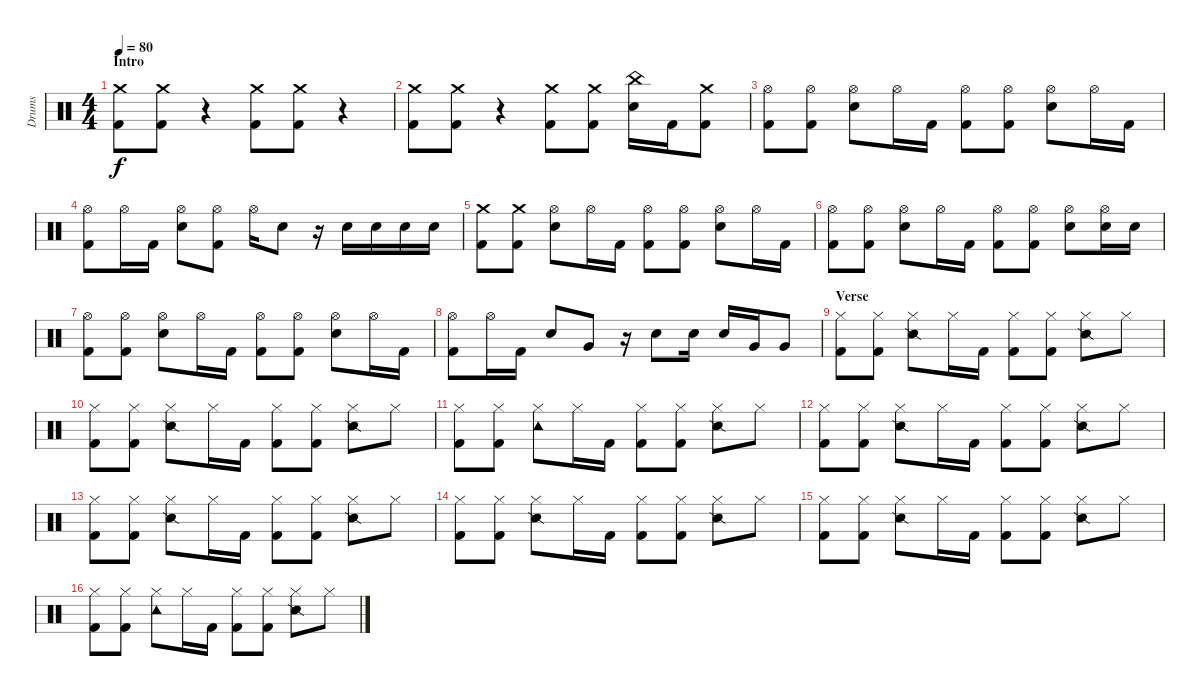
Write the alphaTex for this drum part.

\track ("Drums" "Drums") {instrument percussion}
\staff {score}
\articulation defaults
\ts (4 4)
\section ("" "Intro")
\tempo 80
\clef neutral
\ks c
("Crash medium (hit)" "Kick (hit) 2").8{dy f} ("Crash medium (hit)" "Kick (hit) 2").8 r.4 ("Crash medium (hit)" "Kick (hit) 2").8 ("Crash medium (hit)" "Kick (hit) 2").8 r.4 |
("Crash medium (hit)" "Kick (hit) 2").8 ("Crash medium (hit)" "Kick (hit) 2").8 r.4 ("Crash medium (hit)" "Kick (hit) 2").8 ("Crash medium (hit)" "Kick (hit) 2").8 ("China (hit)" "Snare (hit) 2").16 "Kick (hit) 2".16 ("Crash medium (hit)" "Kick (hit) 2").8 |
("Hi-Hat (open)" "Kick (hit) 2").8 ("Hi-Hat (open)" "Kick (hit) 2").8 ("Hi-Hat (open)" "Snare (hit) 2").8 "Hi-Hat (open)".16 "Kick (hit) 2".16 ("Hi-Hat (open)" "Kick (hit) 2").8 ("Hi-Hat (open)" "Kick (hit) 2").8 ("Hi-Hat (open)" "Snare (hit) 2").8 "Hi-Hat (open)".16 "Kick (hit) 2".16 |
("Hi-Hat (open)" "Kick (hit) 2").8 "Hi-Hat (open)".16 "Kick (hit) 2".16 ("Hi-Hat (open)" "Snare (hit) 2").8 ("Hi-Hat (open)" "Kick (hit) 2").8 "Hi-Hat (open)".16 "Snare (hit) 2".8 r.16 "Snare (hit) 2".16 "Snare (hit) 2".16 "Snare (hit) 2".16 "Snare (hit) 2".16 |
("Crash medium (hit)" "Kick (hit) 2").8 ("Crash medium (hit)" "Kick (hit) 2").8 ("Hi-Hat (open)" "Snare (hit) 2").8 "Hi-Hat (open)".16 "Kick (hit) 2".16 ("Hi-Hat (open)" "Kick (hit) 2").8 ("Hi-Hat (open)" "Kick (hit) 2").8 ("Hi-Hat (open)" "Snare (hit) 2").8 "Hi-Hat (open)".16 "Kick (hit) 2".16 |
("Hi-Hat (open)" "Kick (hit) 2").8 ("Hi-Hat (open)" "Kick (hit) 2").8 ("Hi-Hat (open)" "Snare (hit) 2").8 "Hi-Hat (open)".16 "Kick (hit) 2".16 ("Hi-Hat (open)" "Kick (hit) 2").8 ("Hi-Hat (open)" "Kick (hit) 2").8 ("Hi-Hat (open)" "Snare (hit) 2").8 ("Hi-Hat (open)" "Snare (hit) 2").16 "Snare (hit) 2".16 |
("Hi-Hat (open)" "Kick (hit) 2").8 ("Hi-Hat (open)" "Kick (hit) 2").8 ("Hi-Hat (open)" "Snare (hit) 2").8 "Hi-Hat (open)".16 "Kick (hit) 2".16 ("Hi-Hat (open)" "Kick (hit) 2").8 ("Hi-Hat (open)" "Kick (hit) 2").8 ("Hi-Hat (open)" "Snare (hit) 2").8 "Hi-Hat (open)".16 "Kick (hit) 2".16 |
("Hi-Hat (open)" "Kick (hit) 2").8 "Hi-Hat (open)".16 "Kick (hit) 2".16 "Snare (hit) 2".8 "Very Low Tom (hit)".8 r.16 "Snare (hit) 2".8 "Snare (hit) 2".16 "Snare (hit) 2".16 "Very Low Tom (hit)".16 "Very Low Tom (hit)".8 |
\section ("" "Verse")
("Hi-Hat (closed)" "Kick (hit) 2").8 ("Hi-Hat (closed)" "Kick (hit) 2").8 ("Hi-Hat (closed)" "Snare (side stick) 2").8 "Hi-Hat (closed)".16 "Kick (hit) 2".16 ("Hi-Hat (closed)" "Kick (hit) 2").8 ("Hi-Hat (closed)" "Kick (hit) 2").8 ("Hi-Hat (closed)" "Snare (side stick) 2").8 "Hi-Hat (closed)".8 |
("Hi-Hat (closed)" "Kick (hit) 2").8 ("Hi-Hat (closed)" "Kick (hit) 2").8 ("Hi-Hat (closed)" "Snare (side stick) 2").8 "Hi-Hat (closed)".16 "Kick (hit) 2".16 ("Hi-Hat (closed)" "Kick (hit) 2").8 ("Hi-Hat (closed)" "Kick (hit) 2").8 ("Hi-Hat (closed)" "Snare (side stick) 2").8 "Hi-Hat (closed)".8 |
("Hi-Hat (closed)" "Kick (hit) 2").8 ("Hi-Hat (closed)" "Kick (hit) 2").8 ("Hi-Hat (closed)" "Tambourine (hit)").8 "Hi-Hat (closed)".16 "Kick (hit) 2".16 ("Hi-Hat (closed)" "Kick (hit) 2").8 ("Hi-Hat (closed)" "Kick (hit) 2").8 ("Hi-Hat (closed)" "Snare (side stick) 2").8 "Hi-Hat (closed)".8 |
("Hi-Hat (closed)" "Kick (hit) 2").8 ("Hi-Hat (closed)" "Kick (hit) 2").8 ("Hi-Hat (closed)" "Snare (side stick) 2").8 "Hi-Hat (closed)".16 "Kick (hit) 2".16 ("Hi-Hat (closed)" "Kick (hit) 2").8 ("Hi-Hat (closed)" "Kick (hit) 2").8 ("Hi-Hat (closed)" "Snare (side stick) 2").8 "Hi-Hat (closed)".8 |
("Hi-Hat (closed)" "Kick (hit) 2").8 ("Hi-Hat (closed)" "Kick (hit) 2").8 ("Hi-Hat (closed)" "Snare (side stick) 2").8 "Hi-Hat (closed)".16 "Kick (hit) 2".16 ("Hi-Hat (closed)" "Kick (hit) 2").8 ("Hi-Hat (closed)" "Kick (hit) 2").8 ("Hi-Hat (closed)" "Snare (side stick) 2").8 "Hi-Hat (closed)".8 |
("Hi-Hat (closed)" "Kick (hit) 2").8 ("Hi-Hat (closed)" "Kick (hit) 2").8 ("Hi-Hat (closed)" "Snare (side stick) 2").8 "Hi-Hat (closed)".16 "Kick (hit) 2".16 ("Hi-Hat (closed)" "Kick (hit) 2").8 ("Hi-Hat (closed)" "Kick (hit) 2").8 ("Hi-Hat (closed)" "Snare (side stick) 2").8 "Hi-Hat (closed)".8 |
("Hi-Hat (closed)" "Kick (hit) 2").8 ("Hi-Hat (closed)" "Kick (hit) 2").8 ("Hi-Hat (closed)" "Snare (side stick) 2").8 "Hi-Hat (closed)".16 "Kick (hit) 2".16 ("Hi-Hat (closed)" "Kick (hit) 2").8 ("Hi-Hat (closed)" "Kick (hit) 2").8 ("Hi-Hat (closed)" "Snare (side stick) 2").8 "Hi-Hat (closed)".8 |
("Hi-Hat (closed)" "Kick (hit) 2").8 ("Hi-Hat (closed)" "Kick (hit) 2").8 ("Hi-Hat (closed)" "Tambourine (hit)").8 "Hi-Hat (closed)".16 "Kick (hit) 2".16 ("Hi-Hat (closed)" "Kick (hit) 2").8 ("Hi-Hat (closed)" "Kick (hit) 2").8 ("Hi-Hat (closed)" "Snare (side stick) 2").8 "Hi-Hat (closed)".8
